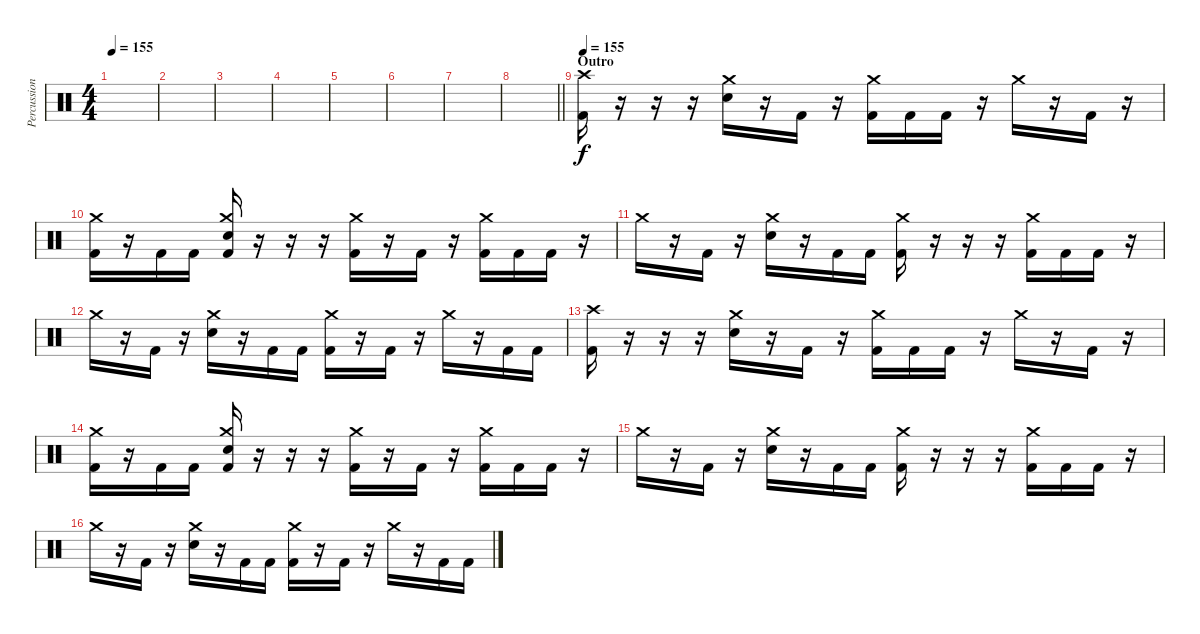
\track ("Percussion" "Percussion") {instrument percussion}
\staff {score}
\articulation defaults
\ts (4 4)
\tempo 155
\clef neutral
\ks c
|
|
|
|
|
|
|
\barLineRight lightlight
|
\section ("" "Outro")
\tempo 155
("Crash high (hit)" "Kick (hit) 2").16 r.16 r.16 r.16 ("Crash medium (hit)" "Electric Snare (hit)").16 r.16 "Kick (hit) 2".16 r.16 ("Crash medium (hit)" "Kick (hit) 2").16 "Kick (hit) 2".16 "Kick (hit) 2".16 r.16 "Crash medium (hit)".16 r.16 "Kick (hit) 2".16 r.16 |
("Crash medium (hit)" "Kick (hit) 2").16 r.16 "Kick (hit) 2".16 "Kick (hit) 2".16 ("Crash medium (hit)" "Electric Snare (hit)" "Kick (hit) 2").16 r.16 r.16 r.16 ("Crash medium (hit)" "Kick (hit) 2").16 r.16 "Kick (hit) 2".16 r.16 ("Crash medium (hit)" "Kick (hit) 2").16 "Kick (hit) 2".16 "Kick (hit) 2".16 r.16 |
"Crash medium (hit)".16 r.16 "Kick (hit) 2".16 r.16 ("Crash medium (hit)" "Electric Snare (hit)").16 r.16 "Kick (hit) 2".16 "Kick (hit) 2".16 ("Crash medium (hit)" "Kick (hit) 2").16 r.16 r.16 r.16 ("Crash medium (hit)" "Kick (hit) 2").16 "Kick (hit) 2".16 "Kick (hit) 2".16 r.16 |
"Crash medium (hit)".16 r.16 "Kick (hit) 2".16 r.16 ("Crash medium (hit)" "Electric Snare (hit)").16 r.16 "Kick (hit) 2".16 "Kick (hit) 2".16 ("Crash medium (hit)" "Kick (hit) 2").16 r.16 "Kick (hit) 2".16 r.16 "Crash medium (hit)".16 r.16 "Kick (hit) 2".16 "Kick (hit) 2".16 |
("Crash high (hit)" "Kick (hit) 2").16 r.16 r.16 r.16 ("Crash medium (hit)" "Electric Snare (hit)").16 r.16 "Kick (hit) 2".16 r.16 ("Crash medium (hit)" "Kick (hit) 2").16 "Kick (hit) 2".16 "Kick (hit) 2".16 r.16 "Crash medium (hit)".16 r.16 "Kick (hit) 2".16 r.16 |
("Crash medium (hit)" "Kick (hit) 2").16 r.16 "Kick (hit) 2".16 "Kick (hit) 2".16 ("Crash medium (hit)" "Electric Snare (hit)" "Kick (hit) 2").16 r.16 r.16 r.16 ("Crash medium (hit)" "Kick (hit) 2").16 r.16 "Kick (hit) 2".16 r.16 ("Crash medium (hit)" "Kick (hit) 2").16 "Kick (hit) 2".16 "Kick (hit) 2".16 r.16 |
"Crash medium (hit)".16 r.16 "Kick (hit) 2".16 r.16 ("Crash medium (hit)" "Electric Snare (hit)").16 r.16 "Kick (hit) 2".16 "Kick (hit) 2".16 ("Crash medium (hit)" "Kick (hit) 2").16 r.16 r.16 r.16 ("Crash medium (hit)" "Kick (hit) 2").16 "Kick (hit) 2".16 "Kick (hit) 2".16 r.16 |
"Crash medium (hit)".16 r.16 "Kick (hit) 2".16 r.16 ("Crash medium (hit)" "Electric Snare (hit)").16 r.16 "Kick (hit) 2".16 "Kick (hit) 2".16 ("Crash medium (hit)" "Kick (hit) 2").16 r.16 "Kick (hit) 2".16 r.16 "Crash medium (hit)".16 r.16 "Kick (hit) 2".16 "Kick (hit) 2".16
